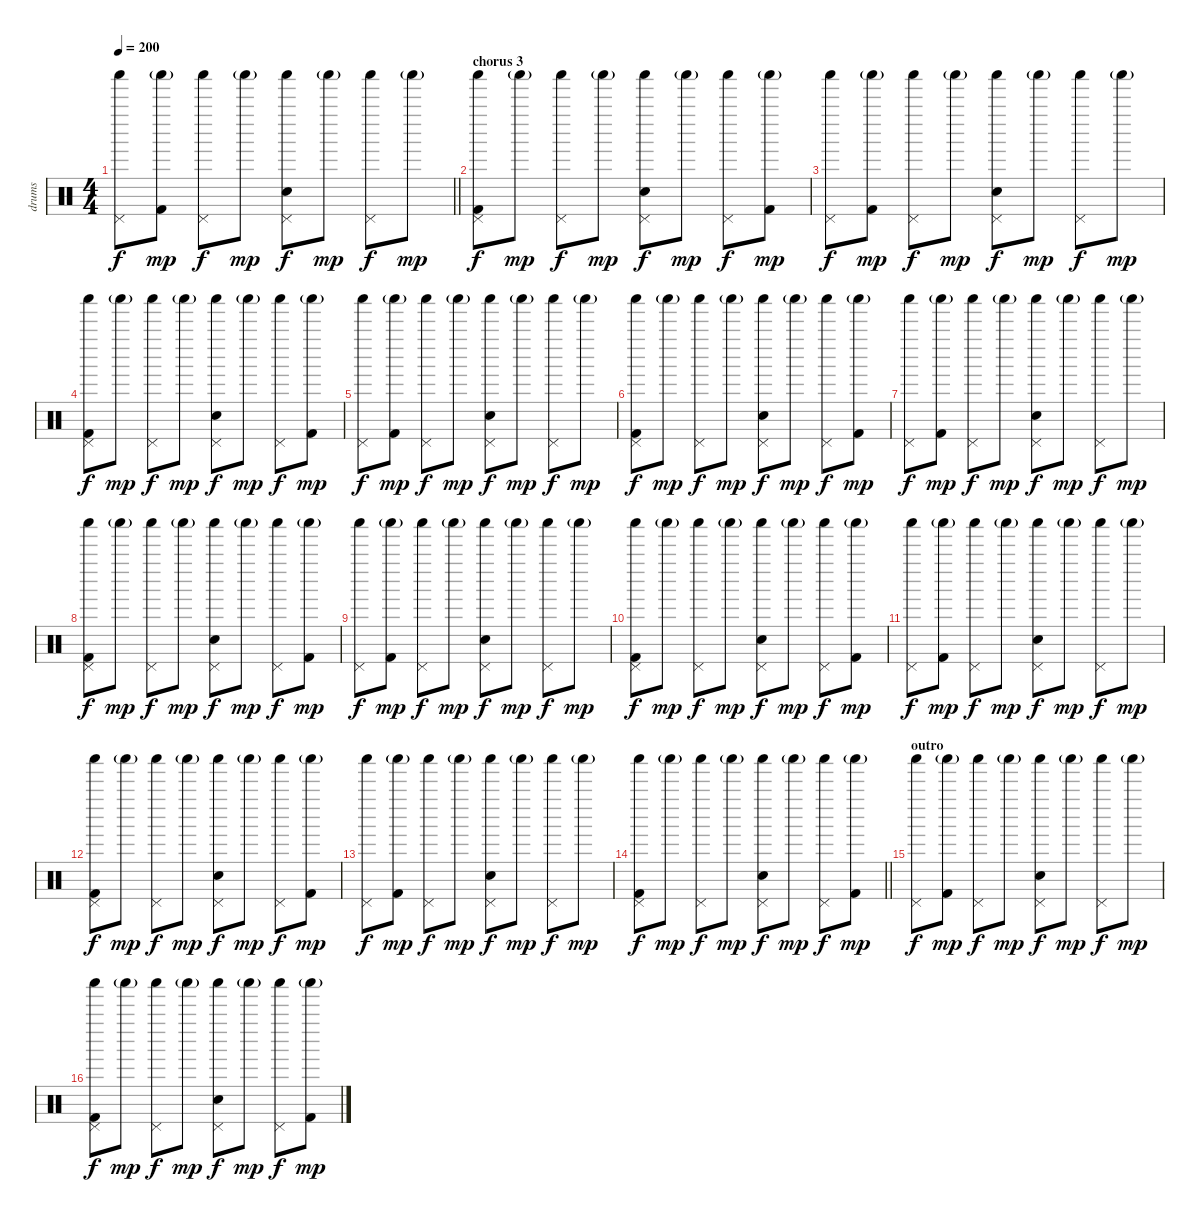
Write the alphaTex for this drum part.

\track ("drums" "drums") {instrument percussion}
\staff {score}
\articulation defaults
\ts (4 4)
\tempo 200
\clef neutral
\barLineRight lightlight
\ks c
("Shaker (hit)" "Pedal Hi-Hat (hit)").8{dy f} ("Kick (hit) 2" "Shaker (hit)"{g}).8{dy mp} ("Shaker (hit)" "Pedal Hi-Hat (hit)").8{dy f} "Shaker (hit)"{g}.8{dy mp} ("Electric Snare (hit)" "Shaker (hit)" "Pedal Hi-Hat (hit)").8{dy f} "Shaker (hit)"{g}.8{dy mp} ("Shaker (hit)" "Pedal Hi-Hat (hit)").8{dy f} "Shaker (hit)"{g}.8{dy mp} |
\section ("" "chorus 3")
("Kick (hit) 2" "Shaker (hit)" "Pedal Hi-Hat (hit)").8{dy f} "Shaker (hit)"{g}.8{dy mp} ("Shaker (hit)" "Pedal Hi-Hat (hit)").8{dy f} "Shaker (hit)"{g}.8{dy mp} ("Electric Snare (hit)" "Shaker (hit)" "Pedal Hi-Hat (hit)").8{dy f} "Shaker (hit)"{g}.8{dy mp} ("Shaker (hit)" "Pedal Hi-Hat (hit)").8{dy f} ("Kick (hit) 2" "Shaker (hit)"{g}).8{dy mp} |
("Shaker (hit)" "Pedal Hi-Hat (hit)").8{dy f} ("Kick (hit) 2" "Shaker (hit)"{g}).8{dy mp} ("Shaker (hit)" "Pedal Hi-Hat (hit)").8{dy f} "Shaker (hit)"{g}.8{dy mp} ("Electric Snare (hit)" "Shaker (hit)" "Pedal Hi-Hat (hit)").8{dy f} "Shaker (hit)"{g}.8{dy mp} ("Shaker (hit)" "Pedal Hi-Hat (hit)").8{dy f} "Shaker (hit)"{g}.8{dy mp} |
("Kick (hit) 2" "Shaker (hit)" "Pedal Hi-Hat (hit)").8{dy f} "Shaker (hit)"{g}.8{dy mp} ("Shaker (hit)" "Pedal Hi-Hat (hit)").8{dy f} "Shaker (hit)"{g}.8{dy mp} ("Electric Snare (hit)" "Shaker (hit)" "Pedal Hi-Hat (hit)").8{dy f} "Shaker (hit)"{g}.8{dy mp} ("Shaker (hit)" "Pedal Hi-Hat (hit)").8{dy f} ("Kick (hit) 2" "Shaker (hit)"{g}).8{dy mp} |
("Shaker (hit)" "Pedal Hi-Hat (hit)").8{dy f} ("Kick (hit) 2" "Shaker (hit)"{g}).8{dy mp} ("Shaker (hit)" "Pedal Hi-Hat (hit)").8{dy f} "Shaker (hit)"{g}.8{dy mp} ("Electric Snare (hit)" "Shaker (hit)" "Pedal Hi-Hat (hit)").8{dy f} "Shaker (hit)"{g}.8{dy mp} ("Shaker (hit)" "Pedal Hi-Hat (hit)").8{dy f} "Shaker (hit)"{g}.8{dy mp} |
("Kick (hit) 2" "Shaker (hit)" "Pedal Hi-Hat (hit)").8{dy f} "Shaker (hit)"{g}.8{dy mp} ("Shaker (hit)" "Pedal Hi-Hat (hit)").8{dy f} "Shaker (hit)"{g}.8{dy mp} ("Electric Snare (hit)" "Shaker (hit)" "Pedal Hi-Hat (hit)").8{dy f} "Shaker (hit)"{g}.8{dy mp} ("Shaker (hit)" "Pedal Hi-Hat (hit)").8{dy f} ("Kick (hit) 2" "Shaker (hit)"{g}).8{dy mp} |
("Shaker (hit)" "Pedal Hi-Hat (hit)").8{dy f} ("Kick (hit) 2" "Shaker (hit)"{g}).8{dy mp} ("Shaker (hit)" "Pedal Hi-Hat (hit)").8{dy f} "Shaker (hit)"{g}.8{dy mp} ("Electric Snare (hit)" "Shaker (hit)" "Pedal Hi-Hat (hit)").8{dy f} "Shaker (hit)"{g}.8{dy mp} ("Shaker (hit)" "Pedal Hi-Hat (hit)").8{dy f} "Shaker (hit)"{g}.8{dy mp} |
("Kick (hit) 2" "Shaker (hit)" "Pedal Hi-Hat (hit)").8{dy f} "Shaker (hit)"{g}.8{dy mp} ("Shaker (hit)" "Pedal Hi-Hat (hit)").8{dy f} "Shaker (hit)"{g}.8{dy mp} ("Electric Snare (hit)" "Shaker (hit)" "Pedal Hi-Hat (hit)").8{dy f} "Shaker (hit)"{g}.8{dy mp} ("Shaker (hit)" "Pedal Hi-Hat (hit)").8{dy f} ("Kick (hit) 2" "Shaker (hit)"{g}).8{dy mp} |
("Shaker (hit)" "Pedal Hi-Hat (hit)").8{dy f} ("Kick (hit) 2" "Shaker (hit)"{g}).8{dy mp} ("Shaker (hit)" "Pedal Hi-Hat (hit)").8{dy f} "Shaker (hit)"{g}.8{dy mp} ("Electric Snare (hit)" "Shaker (hit)" "Pedal Hi-Hat (hit)").8{dy f} "Shaker (hit)"{g}.8{dy mp} ("Shaker (hit)" "Pedal Hi-Hat (hit)").8{dy f} "Shaker (hit)"{g}.8{dy mp} |
("Kick (hit) 2" "Shaker (hit)" "Pedal Hi-Hat (hit)").8{dy f} "Shaker (hit)"{g}.8{dy mp} ("Shaker (hit)" "Pedal Hi-Hat (hit)").8{dy f} "Shaker (hit)"{g}.8{dy mp} ("Electric Snare (hit)" "Shaker (hit)" "Pedal Hi-Hat (hit)").8{dy f} "Shaker (hit)"{g}.8{dy mp} ("Shaker (hit)" "Pedal Hi-Hat (hit)").8{dy f} ("Kick (hit) 2" "Shaker (hit)"{g}).8{dy mp} |
("Shaker (hit)" "Pedal Hi-Hat (hit)").8{dy f} ("Kick (hit) 2" "Shaker (hit)"{g}).8{dy mp} ("Shaker (hit)" "Pedal Hi-Hat (hit)").8{dy f} "Shaker (hit)"{g}.8{dy mp} ("Electric Snare (hit)" "Shaker (hit)" "Pedal Hi-Hat (hit)").8{dy f} "Shaker (hit)"{g}.8{dy mp} ("Shaker (hit)" "Pedal Hi-Hat (hit)").8{dy f} "Shaker (hit)"{g}.8{dy mp} |
("Kick (hit) 2" "Shaker (hit)" "Pedal Hi-Hat (hit)").8{dy f} "Shaker (hit)"{g}.8{dy mp} ("Shaker (hit)" "Pedal Hi-Hat (hit)").8{dy f} "Shaker (hit)"{g}.8{dy mp} ("Electric Snare (hit)" "Shaker (hit)" "Pedal Hi-Hat (hit)").8{dy f} "Shaker (hit)"{g}.8{dy mp} ("Shaker (hit)" "Pedal Hi-Hat (hit)").8{dy f} ("Kick (hit) 2" "Shaker (hit)"{g}).8{dy mp} |
("Shaker (hit)" "Pedal Hi-Hat (hit)").8{dy f} ("Kick (hit) 2" "Shaker (hit)"{g}).8{dy mp} ("Shaker (hit)" "Pedal Hi-Hat (hit)").8{dy f} "Shaker (hit)"{g}.8{dy mp} ("Electric Snare (hit)" "Shaker (hit)" "Pedal Hi-Hat (hit)").8{dy f} "Shaker (hit)"{g}.8{dy mp} ("Shaker (hit)" "Pedal Hi-Hat (hit)").8{dy f} "Shaker (hit)"{g}.8{dy mp} |
\barLineRight lightlight
("Kick (hit) 2" "Shaker (hit)" "Pedal Hi-Hat (hit)").8{dy f} "Shaker (hit)"{g}.8{dy mp} ("Shaker (hit)" "Pedal Hi-Hat (hit)").8{dy f} "Shaker (hit)"{g}.8{dy mp} ("Electric Snare (hit)" "Shaker (hit)" "Pedal Hi-Hat (hit)").8{dy f} "Shaker (hit)"{g}.8{dy mp} ("Shaker (hit)" "Pedal Hi-Hat (hit)").8{dy f} ("Kick (hit) 2" "Shaker (hit)"{g}).8{dy mp} |
\section ("" "outro")
("Shaker (hit)" "Pedal Hi-Hat (hit)").8{dy f} ("Kick (hit) 2" "Shaker (hit)"{g}).8{dy mp} ("Shaker (hit)" "Pedal Hi-Hat (hit)").8{dy f} "Shaker (hit)"{g}.8{dy mp} ("Electric Snare (hit)" "Shaker (hit)" "Pedal Hi-Hat (hit)").8{dy f} "Shaker (hit)"{g}.8{dy mp} ("Shaker (hit)" "Pedal Hi-Hat (hit)").8{dy f} "Shaker (hit)"{g}.8{dy mp} |
("Kick (hit) 2" "Shaker (hit)" "Pedal Hi-Hat (hit)").8{dy f} "Shaker (hit)"{g}.8{dy mp} ("Shaker (hit)" "Pedal Hi-Hat (hit)").8{dy f} "Shaker (hit)"{g}.8{dy mp} ("Electric Snare (hit)" "Shaker (hit)" "Pedal Hi-Hat (hit)").8{dy f} "Shaker (hit)"{g}.8{dy mp} ("Shaker (hit)" "Pedal Hi-Hat (hit)").8{dy f} ("Kick (hit) 2" "Shaker (hit)"{g}).8{dy mp}
